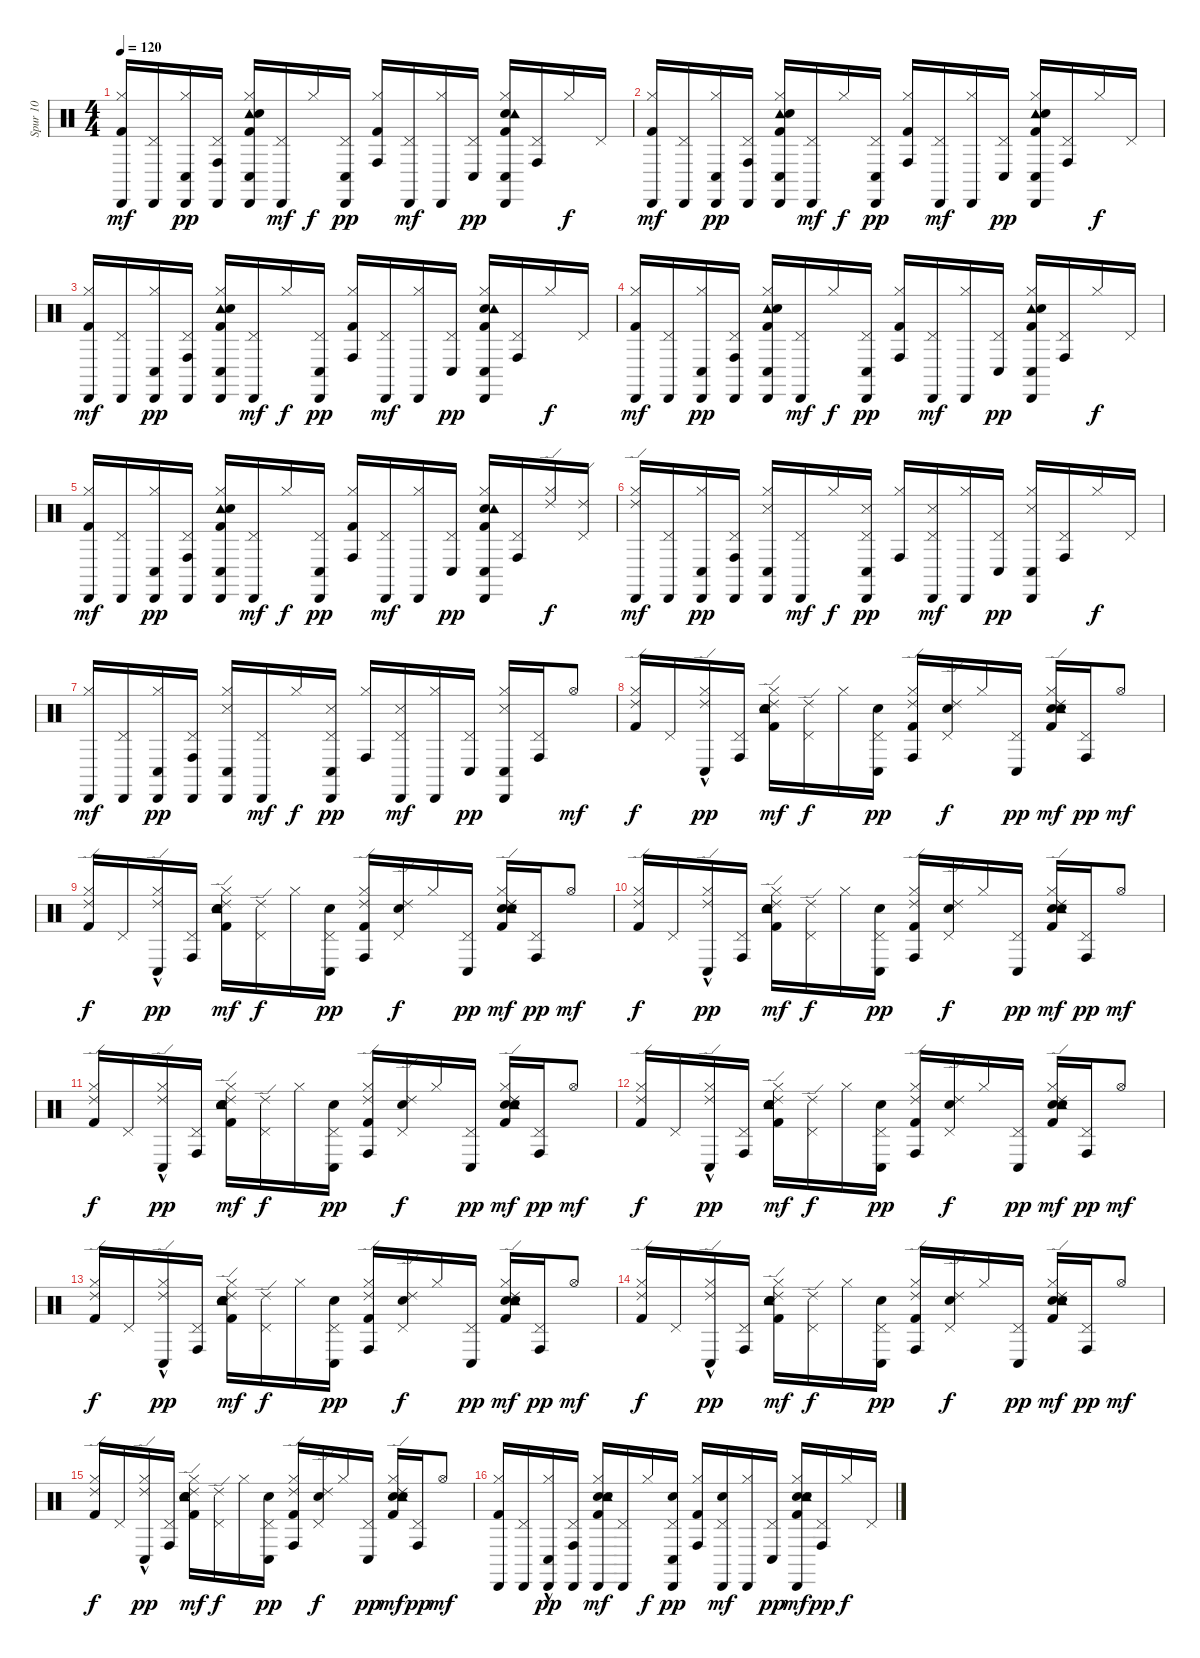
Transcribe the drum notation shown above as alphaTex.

\track ("Spur 10" "Spur 10") {instrument percussion}
\staff {score}
\articulation defaults
\ts (4 4)
\tempo 120
\clef neutral
\ks c
("Kick (hit) 2" "Hi-Hat (closed)" "Cabasa (hit)").16{dy mf} ("Pedal Hi-Hat (hit)" "Cabasa (hit)").16 ("Hi-Hat (closed)" "Cabasa (hit)" "Conga low (hit)").16{dy pp} ("Pedal Hi-Hat (hit)" "Cabasa (hit)" "Conga high (hit)").16 ("Tambourine (hit)" "Snare (hit) 2" "Kick (hit) 2" "Hi-Hat (closed)" "Cabasa (hit)" "Conga low (hit)").16 ("Pedal Hi-Hat (hit)" "Cabasa (hit)").16{dy mf} "Hi-Hat (closed)".16{dy f} ("Pedal Hi-Hat (hit)" "Cabasa (hit)" "Conga low (hit)").16{dy pp} ("Kick (hit) 2" "Hi-Hat (closed)" "Conga high (hit)").16 ("Pedal Hi-Hat (hit)" "Cabasa (hit)").16{dy mf} ("Hi-Hat (closed)" "Cabasa (hit)").16 ("Pedal Hi-Hat (hit)" "Conga low (hit)").16{dy pp} ("Snare (hit) 2" "Kick (hit) 2" "Tambourine (hit)" "Hi-Hat (closed)" "Cabasa (hit)" "Conga low (hit)").16 ("Pedal Hi-Hat (hit)" "Conga high (hit)").16 "Hi-Hat (closed)".16{dy f} "Pedal Hi-Hat (hit)".16 |
("Kick (hit) 2" "Hi-Hat (closed)" "Cabasa (hit)").16{dy mf} ("Pedal Hi-Hat (hit)" "Cabasa (hit)").16 ("Hi-Hat (closed)" "Cabasa (hit)" "Conga low (hit)").16{dy pp} ("Pedal Hi-Hat (hit)" "Cabasa (hit)" "Conga high (hit)").16 ("Kick (hit) 2" "Tambourine (hit)" "Snare (hit) 2" "Hi-Hat (closed)" "Cabasa (hit)" "Conga low (hit)").16 ("Pedal Hi-Hat (hit)" "Cabasa (hit)").16{dy mf} "Hi-Hat (closed)".16{dy f} ("Pedal Hi-Hat (hit)" "Cabasa (hit)" "Conga low (hit)").16{dy pp} ("Kick (hit) 2" "Hi-Hat (closed)" "Conga high (hit)").16 ("Pedal Hi-Hat (hit)" "Cabasa (hit)").16{dy mf} ("Hi-Hat (closed)" "Cabasa (hit)").16 ("Pedal Hi-Hat (hit)" "Conga low (hit)").16{dy pp} ("Tambourine (hit)" "Snare (hit) 2" "Kick (hit) 2" "Hi-Hat (closed)" "Cabasa (hit)" "Conga low (hit)").16 ("Pedal Hi-Hat (hit)" "Conga high (hit)").16 "Hi-Hat (closed)".16{dy f} "Pedal Hi-Hat (hit)".16 |
("Kick (hit) 2" "Hi-Hat (closed)" "Cabasa (hit)").16{dy mf} ("Pedal Hi-Hat (hit)" "Cabasa (hit)").16 ("Hi-Hat (closed)" "Cabasa (hit)" "Conga low (hit)").16{dy pp} ("Pedal Hi-Hat (hit)" "Cabasa (hit)" "Conga high (hit)").16 ("Kick (hit) 2" "Tambourine (hit)" "Snare (hit) 2" "Hi-Hat (closed)" "Cabasa (hit)" "Conga low (hit)").16 ("Pedal Hi-Hat (hit)" "Cabasa (hit)").16{dy mf} "Hi-Hat (closed)".16{dy f} ("Pedal Hi-Hat (hit)" "Cabasa (hit)" "Conga low (hit)").16{dy pp} ("Kick (hit) 2" "Hi-Hat (closed)" "Conga high (hit)").16 ("Pedal Hi-Hat (hit)" "Cabasa (hit)").16{dy mf} ("Hi-Hat (closed)" "Cabasa (hit)").16 ("Pedal Hi-Hat (hit)" "Conga low (hit)").16{dy pp} ("Kick (hit) 2" "Snare (hit) 2" "Tambourine (hit)" "Hi-Hat (closed)" "Cabasa (hit)" "Conga low (hit)").16 ("Pedal Hi-Hat (hit)" "Conga high (hit)").16 "Hi-Hat (closed)".16{dy f} "Pedal Hi-Hat (hit)".16 |
("Kick (hit) 2" "Hi-Hat (closed)" "Cabasa (hit)").16{dy mf} ("Pedal Hi-Hat (hit)" "Cabasa (hit)").16 ("Hi-Hat (closed)" "Cabasa (hit)" "Conga low (hit)").16{dy pp} ("Pedal Hi-Hat (hit)" "Cabasa (hit)" "Conga high (hit)").16 ("Tambourine (hit)" "Kick (hit) 2" "Snare (hit) 2" "Hi-Hat (closed)" "Cabasa (hit)" "Conga low (hit)").16 ("Pedal Hi-Hat (hit)" "Cabasa (hit)").16{dy mf} "Hi-Hat (closed)".16{dy f} ("Pedal Hi-Hat (hit)" "Cabasa (hit)" "Conga low (hit)").16{dy pp} ("Kick (hit) 2" "Hi-Hat (closed)" "Conga high (hit)").16 ("Pedal Hi-Hat (hit)" "Cabasa (hit)").16{dy mf} ("Hi-Hat (closed)" "Cabasa (hit)").16 ("Pedal Hi-Hat (hit)" "Conga low (hit)").16{dy pp} ("Tambourine (hit)" "Snare (hit) 2" "Kick (hit) 2" "Hi-Hat (closed)" "Cabasa (hit)" "Conga low (hit)").16 ("Pedal Hi-Hat (hit)" "Conga high (hit)").16 "Hi-Hat (closed)".16{dy f} "Pedal Hi-Hat (hit)".16 |
("Kick (hit) 2" "Hi-Hat (closed)" "Cabasa (hit)").16{dy mf} ("Pedal Hi-Hat (hit)" "Cabasa (hit)").16 ("Hi-Hat (closed)" "Cabasa (hit)" "Conga low (hit)").16{dy pp} ("Pedal Hi-Hat (hit)" "Cabasa (hit)" "Conga high (hit)").16 ("Tambourine (hit)" "Kick (hit) 2" "Snare (hit) 2" "Hi-Hat (closed)" "Cabasa (hit)" "Conga low (hit)").16 ("Pedal Hi-Hat (hit)" "Cabasa (hit)").16{dy mf} "Hi-Hat (closed)".16{dy f} ("Pedal Hi-Hat (hit)" "Cabasa (hit)" "Conga low (hit)").16{dy pp} ("Kick (hit) 2" "Hi-Hat (closed)" "Conga high (hit)").16 ("Pedal Hi-Hat (hit)" "Cabasa (hit)").16{dy mf} ("Hi-Hat (closed)" "Cabasa (hit)").16 ("Pedal Hi-Hat (hit)" "Conga low (hit)").16{dy pp} ("Snare (hit) 2" "Kick (hit) 2" "Tambourine (hit)" "Hi-Hat (closed)" "Cabasa (hit)" "Conga low (hit)").16 ("Pedal Hi-Hat (hit)" "Conga high (hit)").16 ("Hi-Hat (closed)" "Ride (edge) 2").16{dy f} ("Pedal Hi-Hat (hit)" "Ride (edge) 2").16 |
("Hi-Hat (closed)" "Ride (edge) 2" "Cabasa (hit)").16{dy mf} ("Pedal Hi-Hat (hit)" "Cabasa (hit)").16 ("Hi-Hat (closed)" "Cabasa (hit)" "Conga low (hit)").16{dy pp} ("Pedal Hi-Hat (hit)" "Cabasa (hit)" "Conga high (hit)").16 ("Snare (side stick) 3" "Hi-Hat (closed)" "Cabasa (hit)" "Conga low (hit)").16 ("Pedal Hi-Hat (hit)" "Cabasa (hit)").16{dy mf} "Hi-Hat (closed)".16{dy f} ("Snare (side stick) 3" "Pedal Hi-Hat (hit)" "Cabasa (hit)" "Conga low (hit)").16{dy pp} ("Hi-Hat (closed)" "Conga high (hit)").16 ("Snare (side stick) 3" "Pedal Hi-Hat (hit)" "Cabasa (hit)").16{dy mf} ("Hi-Hat (closed)" "Cabasa (hit)").16 ("Pedal Hi-Hat (hit)" "Conga low (hit)").16{dy pp} ("Snare (side stick) 3" "Hi-Hat (closed)" "Cabasa (hit)" "Conga low (hit)").16 ("Pedal Hi-Hat (hit)" "Conga high (hit)").16 "Hi-Hat (closed)".16{dy f} "Pedal Hi-Hat (hit)".16 |
("Hi-Hat (closed)" "Cabasa (hit)").16{dy mf} ("Pedal Hi-Hat (hit)" "Cabasa (hit)").16 ("Hi-Hat (closed)" "Cabasa (hit)" "Conga low (hit)").16{dy pp} ("Pedal Hi-Hat (hit)" "Cabasa (hit)" "Conga high (hit)").16 ("Snare (side stick) 3" "Hi-Hat (closed)" "Cabasa (hit)" "Conga low (hit)").16 ("Pedal Hi-Hat (hit)" "Cabasa (hit)").16{dy mf} "Hi-Hat (closed)".16{dy f} ("Snare (side stick) 3" "Pedal Hi-Hat (hit)" "Cabasa (hit)" "Conga low (hit)").16{dy pp} ("Hi-Hat (closed)" "Conga high (hit)").16 ("Snare (side stick) 3" "Pedal Hi-Hat (hit)" "Cabasa (hit)").16{dy mf} ("Hi-Hat (closed)" "Cabasa (hit)").16 ("Pedal Hi-Hat (hit)" "Conga low (hit)").16{dy pp} ("Snare (side stick) 3" "Hi-Hat (closed)" "Cabasa (hit)" "Conga low (hit)").16 ("Pedal Hi-Hat (hit)" "Conga high (hit)").16 "Hi-Hat (open)".8{dy mf} |
("Kick (hit) 2" "Hi-Hat (closed)" "Ride (edge) 2").16{dy f} "Pedal Hi-Hat (hit)".16 ("Hi-Hat (closed)" "Ride (edge) 2" "Conga low (hit)"{hac}).16{dy pp} ("Pedal Hi-Hat (hit)" "Conga high (hit)").16 ("Electric Snare (hit)" "Kick (hit) 2" "Tambourine (hit)" "Snare (hit) 2" "Hi-Hat (closed)" "Ride (edge) 2").16{dy mf} ("Pedal Hi-Hat (hit)" "Ride (edge) 2").16{dy f} "Hi-Hat (closed)".16 ("Electric Snare (hit)" "Pedal Hi-Hat (hit)" "Conga low (hit)").16{dy pp} ("Kick (hit) 2" "Hi-Hat (closed)" "Ride (edge) 2" "Conga high (hit)").16 ("Electric Snare (hit)" "Pedal Hi-Hat (hit)" "Ride (edge) 2").16{dy f} "Hi-Hat (closed)".16 ("Pedal Hi-Hat (hit)" "Conga low (hit)").16{dy pp} ("Electric Snare (hit)" "Tambourine (hit)" "Snare (hit) 2" "Kick (hit) 2" "Hi-Hat (closed)" "Ride (edge) 2").16{dy mf} ("Pedal Hi-Hat (hit)" "Conga high (hit)").16{dy pp} "Hi-Hat (open)".8{dy mf} |
("Kick (hit) 2" "Hi-Hat (closed)" "Ride (edge) 2").16{dy f} "Pedal Hi-Hat (hit)".16 ("Hi-Hat (closed)" "Ride (edge) 2" "Conga low (hit)"{hac}).16{dy pp} ("Pedal Hi-Hat (hit)" "Conga high (hit)").16 ("Electric Snare (hit)" "Kick (hit) 2" "Tambourine (hit)" "Snare (hit) 2" "Hi-Hat (closed)" "Ride (edge) 2").16{dy mf} ("Pedal Hi-Hat (hit)" "Ride (edge) 2").16{dy f} "Hi-Hat (closed)".16 ("Electric Snare (hit)" "Pedal Hi-Hat (hit)" "Conga low (hit)").16{dy pp} ("Kick (hit) 2" "Hi-Hat (closed)" "Ride (edge) 2" "Conga high (hit)").16 ("Electric Snare (hit)" "Pedal Hi-Hat (hit)" "Ride (edge) 2").16{dy f} "Hi-Hat (closed)".16 ("Pedal Hi-Hat (hit)" "Conga low (hit)").16{dy pp} ("Electric Snare (hit)" "Tambourine (hit)" "Snare (hit) 2" "Kick (hit) 2" "Hi-Hat (closed)" "Ride (edge) 2").16{dy mf} ("Pedal Hi-Hat (hit)" "Conga high (hit)").16{dy pp} "Hi-Hat (open)".8{dy mf} |
("Kick (hit) 2" "Hi-Hat (closed)" "Ride (edge) 2").16{dy f} "Pedal Hi-Hat (hit)".16 ("Hi-Hat (closed)" "Ride (edge) 2" "Conga low (hit)"{hac}).16{dy pp} ("Pedal Hi-Hat (hit)" "Conga high (hit)").16 ("Electric Snare (hit)" "Kick (hit) 2" "Tambourine (hit)" "Snare (hit) 2" "Hi-Hat (closed)" "Ride (edge) 2").16{dy mf} ("Pedal Hi-Hat (hit)" "Ride (edge) 2").16{dy f} "Hi-Hat (closed)".16 ("Electric Snare (hit)" "Pedal Hi-Hat (hit)" "Conga low (hit)").16{dy pp} ("Kick (hit) 2" "Hi-Hat (closed)" "Ride (edge) 2" "Conga high (hit)").16 ("Electric Snare (hit)" "Pedal Hi-Hat (hit)" "Ride (edge) 2").16{dy f} "Hi-Hat (closed)".16 ("Pedal Hi-Hat (hit)" "Conga low (hit)").16{dy pp} ("Electric Snare (hit)" "Tambourine (hit)" "Snare (hit) 2" "Kick (hit) 2" "Hi-Hat (closed)" "Ride (edge) 2").16{dy mf} ("Pedal Hi-Hat (hit)" "Conga high (hit)").16{dy pp} "Hi-Hat (open)".8{dy mf} |
("Kick (hit) 2" "Hi-Hat (closed)" "Ride (edge) 2").16{dy f} "Pedal Hi-Hat (hit)".16 ("Hi-Hat (closed)" "Ride (edge) 2" "Conga low (hit)"{hac}).16{dy pp} ("Pedal Hi-Hat (hit)" "Conga high (hit)").16 ("Electric Snare (hit)" "Kick (hit) 2" "Tambourine (hit)" "Snare (hit) 2" "Hi-Hat (closed)" "Ride (edge) 2").16{dy mf} ("Pedal Hi-Hat (hit)" "Ride (edge) 2").16{dy f} "Hi-Hat (closed)".16 ("Electric Snare (hit)" "Pedal Hi-Hat (hit)" "Conga low (hit)").16{dy pp} ("Kick (hit) 2" "Hi-Hat (closed)" "Ride (edge) 2" "Conga high (hit)").16 ("Electric Snare (hit)" "Pedal Hi-Hat (hit)" "Ride (edge) 2").16{dy f} "Hi-Hat (closed)".16 ("Pedal Hi-Hat (hit)" "Conga low (hit)").16{dy pp} ("Electric Snare (hit)" "Tambourine (hit)" "Snare (hit) 2" "Kick (hit) 2" "Hi-Hat (closed)" "Ride (edge) 2").16{dy mf} ("Pedal Hi-Hat (hit)" "Conga high (hit)").16{dy pp} "Hi-Hat (open)".8{dy mf} |
("Kick (hit) 2" "Hi-Hat (closed)" "Ride (edge) 2").16{dy f} "Pedal Hi-Hat (hit)".16 ("Hi-Hat (closed)" "Ride (edge) 2" "Conga low (hit)"{hac}).16{dy pp} ("Pedal Hi-Hat (hit)" "Conga high (hit)").16 ("Electric Snare (hit)" "Kick (hit) 2" "Tambourine (hit)" "Snare (hit) 2" "Hi-Hat (closed)" "Ride (edge) 2").16{dy mf} ("Pedal Hi-Hat (hit)" "Ride (edge) 2").16{dy f} "Hi-Hat (closed)".16 ("Electric Snare (hit)" "Pedal Hi-Hat (hit)" "Conga low (hit)").16{dy pp} ("Kick (hit) 2" "Hi-Hat (closed)" "Ride (edge) 2" "Conga high (hit)").16 ("Electric Snare (hit)" "Pedal Hi-Hat (hit)" "Ride (edge) 2").16{dy f} "Hi-Hat (closed)".16 ("Pedal Hi-Hat (hit)" "Conga low (hit)").16{dy pp} ("Electric Snare (hit)" "Tambourine (hit)" "Snare (hit) 2" "Kick (hit) 2" "Hi-Hat (closed)" "Ride (edge) 2").16{dy mf} ("Pedal Hi-Hat (hit)" "Conga high (hit)").16{dy pp} "Hi-Hat (open)".8{dy mf} |
("Kick (hit) 2" "Hi-Hat (closed)" "Ride (edge) 2").16{dy f} "Pedal Hi-Hat (hit)".16 ("Hi-Hat (closed)" "Ride (edge) 2" "Conga low (hit)"{hac}).16{dy pp} ("Pedal Hi-Hat (hit)" "Conga high (hit)").16 ("Electric Snare (hit)" "Kick (hit) 2" "Tambourine (hit)" "Snare (hit) 2" "Hi-Hat (closed)" "Ride (edge) 2").16{dy mf} ("Pedal Hi-Hat (hit)" "Ride (edge) 2").16{dy f} "Hi-Hat (closed)".16 ("Electric Snare (hit)" "Pedal Hi-Hat (hit)" "Conga low (hit)").16{dy pp} ("Kick (hit) 2" "Hi-Hat (closed)" "Ride (edge) 2" "Conga high (hit)").16 ("Electric Snare (hit)" "Pedal Hi-Hat (hit)" "Ride (edge) 2").16{dy f} "Hi-Hat (closed)".16 ("Pedal Hi-Hat (hit)" "Conga low (hit)").16{dy pp} ("Electric Snare (hit)" "Tambourine (hit)" "Snare (hit) 2" "Kick (hit) 2" "Hi-Hat (closed)" "Ride (edge) 2").16{dy mf} ("Pedal Hi-Hat (hit)" "Conga high (hit)").16{dy pp} "Hi-Hat (open)".8{dy mf} |
("Kick (hit) 2" "Hi-Hat (closed)" "Ride (edge) 2").16{dy f} "Pedal Hi-Hat (hit)".16 ("Hi-Hat (closed)" "Ride (edge) 2" "Conga low (hit)"{hac}).16{dy pp} ("Pedal Hi-Hat (hit)" "Conga high (hit)").16 ("Electric Snare (hit)" "Kick (hit) 2" "Tambourine (hit)" "Snare (hit) 2" "Hi-Hat (closed)" "Ride (edge) 2").16{dy mf} ("Pedal Hi-Hat (hit)" "Ride (edge) 2").16{dy f} "Hi-Hat (closed)".16 ("Electric Snare (hit)" "Pedal Hi-Hat (hit)" "Conga low (hit)").16{dy pp} ("Kick (hit) 2" "Hi-Hat (closed)" "Ride (edge) 2" "Conga high (hit)").16 ("Electric Snare (hit)" "Pedal Hi-Hat (hit)" "Ride (edge) 2").16{dy f} "Hi-Hat (closed)".16 ("Pedal Hi-Hat (hit)" "Conga low (hit)").16{dy pp} ("Electric Snare (hit)" "Tambourine (hit)" "Snare (hit) 2" "Kick (hit) 2" "Hi-Hat (closed)" "Ride (edge) 2").16{dy mf} ("Pedal Hi-Hat (hit)" "Conga high (hit)").16{dy pp} "Hi-Hat (open)".8{dy mf} |
("Kick (hit) 2" "Hi-Hat (closed)" "Ride (edge) 2").16{dy f} "Pedal Hi-Hat (hit)".16 ("Hi-Hat (closed)" "Ride (edge) 2" "Conga low (hit)"{hac}).16{dy pp} ("Pedal Hi-Hat (hit)" "Conga high (hit)").16 ("Electric Snare (hit)" "Kick (hit) 2" "Tambourine (hit)" "Snare (hit) 2" "Hi-Hat (closed)" "Ride (edge) 2").16{dy mf} ("Pedal Hi-Hat (hit)" "Ride (edge) 2").16{dy f} "Hi-Hat (closed)".16 ("Electric Snare (hit)" "Pedal Hi-Hat (hit)" "Conga low (hit)").16{dy pp} ("Kick (hit) 2" "Hi-Hat (closed)" "Ride (edge) 2" "Conga high (hit)").16 ("Electric Snare (hit)" "Pedal Hi-Hat (hit)" "Ride (edge) 2").16{dy f} "Hi-Hat (closed)".16 ("Pedal Hi-Hat (hit)" "Conga low (hit)").16{dy pp} ("Electric Snare (hit)" "Tambourine (hit)" "Snare (hit) 2" "Kick (hit) 2" "Hi-Hat (closed)" "Ride (edge) 2").16{dy mf} ("Pedal Hi-Hat (hit)" "Conga high (hit)").16{dy pp} "Hi-Hat (open)".8{dy mf} |
("Kick (hit) 2" "Hi-Hat (closed)" "Cabasa (hit)").16 ("Pedal Hi-Hat (hit)" "Cabasa (hit)").16 ("Hi-Hat (closed)" "Cabasa (hit)" "Conga low (hit)"{hac}).16{dy pp} ("Pedal Hi-Hat (hit)" "Cabasa (hit)" "Conga high (hit)").16 ("Kick (hit) 2" "Snare (hit) 2" "Tambourine (hit)" "Electric Snare (hit)" "Hi-Hat (closed)" "Cabasa (hit)").16{dy mf} ("Pedal Hi-Hat (hit)" "Cabasa (hit)").16 "Hi-Hat (closed)".16{dy f} ("Electric Snare (hit)" "Pedal Hi-Hat (hit)" "Cabasa (hit)" "Conga low (hit)").16{dy pp} ("Kick (hit) 2" "Hi-Hat (closed)" "Conga high (hit)").16 ("Electric Snare (hit)" "Pedal Hi-Hat (hit)" "Cabasa (hit)").16{dy mf} ("Hi-Hat (closed)" "Cabasa (hit)").16 ("Pedal Hi-Hat (hit)" "Conga low (hit)").16{dy pp} ("Electric Snare (hit)" "Kick (hit) 2" "Tambourine (hit)" "Snare (hit) 2" "Hi-Hat (closed)" "Cabasa (hit)").16{dy mf} ("Pedal Hi-Hat (hit)" "Conga high (hit)").16{dy pp} "Hi-Hat (closed)".16{dy f} "Pedal Hi-Hat (hit)".16
